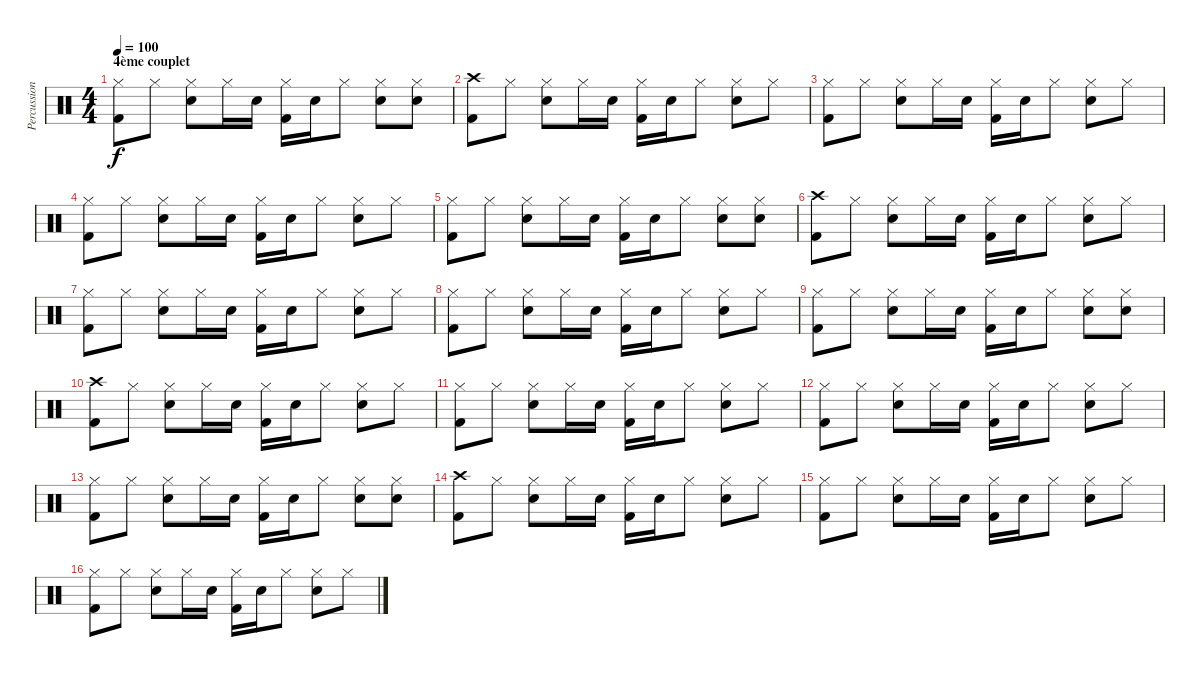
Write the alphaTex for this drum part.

\track ("Percussions" "Percussion") {instrument percussion}
\staff {score}
\articulation defaults
\ts (4 4)
\section ("" "4ème couplet")
\tempo 100
\clef neutral
\ks c
("Hi-Hat (closed)" "Kick (hit) 2").8{dy f} "Hi-Hat (closed)".8 ("Hi-Hat (closed)" "Electric Snare (hit)").8 "Hi-Hat (closed)".16 "Electric Snare (hit)".16 ("Hi-Hat (closed)" "Kick (hit) 2").16 "Electric Snare (hit)".16 "Hi-Hat (closed)".8 ("Hi-Hat (closed)" "Electric Snare (hit)").8 ("Hi-Hat (closed)" "Electric Snare (hit)").8 |
("Crash high (hit)" "Kick (hit) 2").8 "Hi-Hat (closed)".8 ("Hi-Hat (closed)" "Electric Snare (hit)").8 "Hi-Hat (closed)".16 "Electric Snare (hit)".16 ("Hi-Hat (closed)" "Kick (hit) 2").16 "Electric Snare (hit)".16 "Hi-Hat (closed)".8 ("Hi-Hat (closed)" "Electric Snare (hit)").8 "Hi-Hat (closed)".8 |
("Hi-Hat (closed)" "Kick (hit) 2").8 "Hi-Hat (closed)".8 ("Hi-Hat (closed)" "Electric Snare (hit)").8 "Hi-Hat (closed)".16 "Electric Snare (hit)".16 ("Hi-Hat (closed)" "Kick (hit) 2").16 "Electric Snare (hit)".16 "Hi-Hat (closed)".8 ("Hi-Hat (closed)" "Electric Snare (hit)").8 "Hi-Hat (closed)".8 |
("Hi-Hat (closed)" "Kick (hit) 2").8 "Hi-Hat (closed)".8 ("Hi-Hat (closed)" "Electric Snare (hit)").8 "Hi-Hat (closed)".16 "Electric Snare (hit)".16 ("Hi-Hat (closed)" "Kick (hit) 2").16 "Electric Snare (hit)".16 "Hi-Hat (closed)".8 ("Hi-Hat (closed)" "Electric Snare (hit)").8 "Hi-Hat (closed)".8 |
("Hi-Hat (closed)" "Kick (hit) 2").8 "Hi-Hat (closed)".8 ("Hi-Hat (closed)" "Electric Snare (hit)").8 "Hi-Hat (closed)".16 "Electric Snare (hit)".16 ("Hi-Hat (closed)" "Kick (hit) 2").16 "Electric Snare (hit)".16 "Hi-Hat (closed)".8 ("Hi-Hat (closed)" "Electric Snare (hit)").8 ("Hi-Hat (closed)" "Electric Snare (hit)").8 |
("Crash high (hit)" "Kick (hit) 2").8 "Hi-Hat (closed)".8 ("Hi-Hat (closed)" "Electric Snare (hit)").8 "Hi-Hat (closed)".16 "Electric Snare (hit)".16 ("Hi-Hat (closed)" "Kick (hit) 2").16 "Electric Snare (hit)".16 "Hi-Hat (closed)".8 ("Hi-Hat (closed)" "Electric Snare (hit)").8 "Hi-Hat (closed)".8 |
("Hi-Hat (closed)" "Kick (hit) 2").8 "Hi-Hat (closed)".8 ("Hi-Hat (closed)" "Electric Snare (hit)").8 "Hi-Hat (closed)".16 "Electric Snare (hit)".16 ("Hi-Hat (closed)" "Kick (hit) 2").16 "Electric Snare (hit)".16 "Hi-Hat (closed)".8 ("Hi-Hat (closed)" "Electric Snare (hit)").8 "Hi-Hat (closed)".8 |
("Hi-Hat (closed)" "Kick (hit) 2").8 "Hi-Hat (closed)".8 ("Hi-Hat (closed)" "Electric Snare (hit)").8 "Hi-Hat (closed)".16 "Electric Snare (hit)".16 ("Hi-Hat (closed)" "Kick (hit) 2").16 "Electric Snare (hit)".16 "Hi-Hat (closed)".8 ("Hi-Hat (closed)" "Electric Snare (hit)").8 "Hi-Hat (closed)".8 |
("Hi-Hat (closed)" "Kick (hit) 2").8 "Hi-Hat (closed)".8 ("Hi-Hat (closed)" "Electric Snare (hit)").8 "Hi-Hat (closed)".16 "Electric Snare (hit)".16 ("Hi-Hat (closed)" "Kick (hit) 2").16 "Electric Snare (hit)".16 "Hi-Hat (closed)".8 ("Hi-Hat (closed)" "Electric Snare (hit)").8 ("Hi-Hat (closed)" "Electric Snare (hit)").8 |
("Crash high (hit)" "Kick (hit) 2").8 "Hi-Hat (closed)".8 ("Hi-Hat (closed)" "Electric Snare (hit)").8 "Hi-Hat (closed)".16 "Electric Snare (hit)".16 ("Hi-Hat (closed)" "Kick (hit) 2").16 "Electric Snare (hit)".16 "Hi-Hat (closed)".8 ("Hi-Hat (closed)" "Electric Snare (hit)").8 "Hi-Hat (closed)".8 |
("Hi-Hat (closed)" "Kick (hit) 2").8 "Hi-Hat (closed)".8 ("Hi-Hat (closed)" "Electric Snare (hit)").8 "Hi-Hat (closed)".16 "Electric Snare (hit)".16 ("Hi-Hat (closed)" "Kick (hit) 2").16 "Electric Snare (hit)".16 "Hi-Hat (closed)".8 ("Hi-Hat (closed)" "Electric Snare (hit)").8 "Hi-Hat (closed)".8 |
("Hi-Hat (closed)" "Kick (hit) 2").8 "Hi-Hat (closed)".8 ("Hi-Hat (closed)" "Electric Snare (hit)").8 "Hi-Hat (closed)".16 "Electric Snare (hit)".16 ("Hi-Hat (closed)" "Kick (hit) 2").16 "Electric Snare (hit)".16 "Hi-Hat (closed)".8 ("Hi-Hat (closed)" "Electric Snare (hit)").8 "Hi-Hat (closed)".8 |
("Hi-Hat (closed)" "Kick (hit) 2").8 "Hi-Hat (closed)".8 ("Hi-Hat (closed)" "Electric Snare (hit)").8 "Hi-Hat (closed)".16 "Electric Snare (hit)".16 ("Hi-Hat (closed)" "Kick (hit) 2").16 "Electric Snare (hit)".16 "Hi-Hat (closed)".8 ("Hi-Hat (closed)" "Electric Snare (hit)").8 ("Hi-Hat (closed)" "Electric Snare (hit)").8 |
("Crash high (hit)" "Kick (hit) 2").8 "Hi-Hat (closed)".8 ("Hi-Hat (closed)" "Electric Snare (hit)").8 "Hi-Hat (closed)".16 "Electric Snare (hit)".16 ("Hi-Hat (closed)" "Kick (hit) 2").16 "Electric Snare (hit)".16 "Hi-Hat (closed)".8 ("Hi-Hat (closed)" "Electric Snare (hit)").8 "Hi-Hat (closed)".8 |
("Hi-Hat (closed)" "Kick (hit) 2").8 "Hi-Hat (closed)".8 ("Hi-Hat (closed)" "Electric Snare (hit)").8 "Hi-Hat (closed)".16 "Electric Snare (hit)".16 ("Hi-Hat (closed)" "Kick (hit) 2").16 "Electric Snare (hit)".16 "Hi-Hat (closed)".8 ("Hi-Hat (closed)" "Electric Snare (hit)").8 "Hi-Hat (closed)".8 |
("Hi-Hat (closed)" "Kick (hit) 2").8 "Hi-Hat (closed)".8 ("Hi-Hat (closed)" "Electric Snare (hit)").8 "Hi-Hat (closed)".16 "Electric Snare (hit)".16 ("Hi-Hat (closed)" "Kick (hit) 2").16 "Electric Snare (hit)".16 "Hi-Hat (closed)".8 ("Hi-Hat (closed)" "Electric Snare (hit)").8 "Hi-Hat (closed)".8
